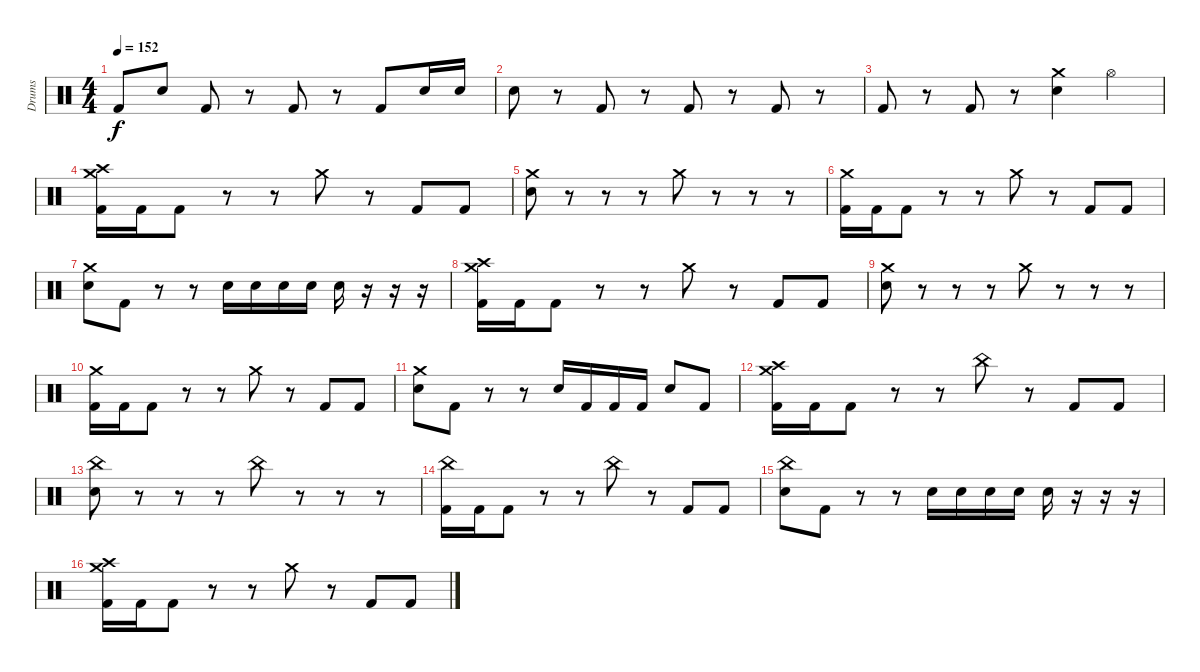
\track ("Drums" "Drums") {instrument percussion}
\staff {score}
\articulation defaults
\ts (4 4)
\tempo 152
\clef neutral
\ks c "Kick (hit) 2".8{dy f} "Electric Snare (hit)".8 "Kick (hit) 2".8
r.8 "Kick (hit) 2".8 r.8 "Kick (hit) 2".8 "Electric Snare (hit)".16 "Electric Snare (hit)".16 |
"Electric Snare (hit)".8 r.8 "Kick (hit) 2".8 r.8 "Kick (hit) 2".8 r.8 "Kick (hit) 2".8 r.8 |
"Kick (hit) 2".8 r.8 "Kick (hit) 2".8 r.8 ("Crash medium (hit)" "Electric Snare (hit)").4 "Hi-Hat (open)".4 |
("Crash medium (hit)" "Crash high (hit)" "Kick (hit) 2").16 "Kick (hit) 2".16 "Kick (hit) 2".8 r.8 r.8 "Crash medium (hit)".8 r.8 "Kick (hit) 2".8 "Kick (hit) 2".8 |
("Crash medium (hit)" "Electric Snare (hit)").8 r.8 r.8 r.8 "Crash medium (hit)".8 r.8 r.8 r.8 |
("Crash medium (hit)" "Kick (hit) 2").16 "Kick (hit) 2".16 "Kick (hit) 2".8 r.8 r.8 "Crash medium (hit)".8 r.8 "Kick (hit) 2".8 "Kick (hit) 2".8 |
("Crash medium (hit)" "Electric Snare (hit)").8 "Kick (hit) 2".8 r.8 r.8 "Electric Snare (hit)".16 "Electric Snare (hit)".16 "Electric Snare (hit)".16 "Electric Snare (hit)".16 "Electric Snare (hit)".16 r.16 r.16 r.16 |
("Crash medium (hit)" "Crash high (hit)" "Kick (hit) 2").16 "Kick (hit) 2".16 "Kick (hit) 2".8 r.8 r.8 "Crash medium (hit)".8 r.8 "Kick (hit) 2".8 "Kick (hit) 2".8 |
("Crash medium (hit)" "Electric Snare (hit)").8 r.8 r.8 r.8 "Crash medium (hit)".8 r.8 r.8 r.8 |
("Crash medium (hit)" "Kick (hit) 2").16 "Kick (hit) 2".16 "Kick (hit) 2".8 r.8 r.8 "Crash medium (hit)".8 r.8 "Kick (hit) 2".8 "Kick (hit) 2".8 |
("Crash medium (hit)" "Electric Snare (hit)").8 "Kick (hit) 2".8 r.8 r.8 "Electric Snare (hit)".16 "Kick (hit) 2".16 "Kick (hit) 2".16 "Kick (hit) 2".16 "Electric Snare (hit)".8 "Kick (hit) 2".8 |
("Crash medium (hit)" "Crash high (hit)" "Kick (hit) 2").16 "Kick (hit) 2".16 "Kick (hit) 2".8 r.8 r.8 "China (hit)".8 r.8 "Kick (hit) 2".8 "Kick (hit) 2".8 |
("China (hit)" "Electric Snare (hit)").8 r.8 r.8 r.8 "China (hit)".8 r.8 r.8 r.8 |
("China (hit)" "Kick (hit) 2").16 "Kick (hit) 2".16 "Kick (hit) 2".8 r.8 r.8 "China (hit)".8 r.8 "Kick (hit) 2".8 "Kick (hit) 2".8 |
("China (hit)" "Electric Snare (hit)").8 "Kick (hit) 2".8 r.8 r.8 "Electric Snare (hit)".16 "Electric Snare (hit)".16 "Electric Snare (hit)".16 "Electric Snare (hit)".16 "Electric Snare (hit)".16 r.16 r.16 r.16 |
("Crash medium (hit)" "Crash high (hit)" "Kick (hit) 2").16 "Kick (hit) 2".16 "Kick (hit) 2".8 r.8 r.8 "Crash medium (hit)".8 r.8 "Kick (hit) 2".8 "Kick (hit) 2".8
